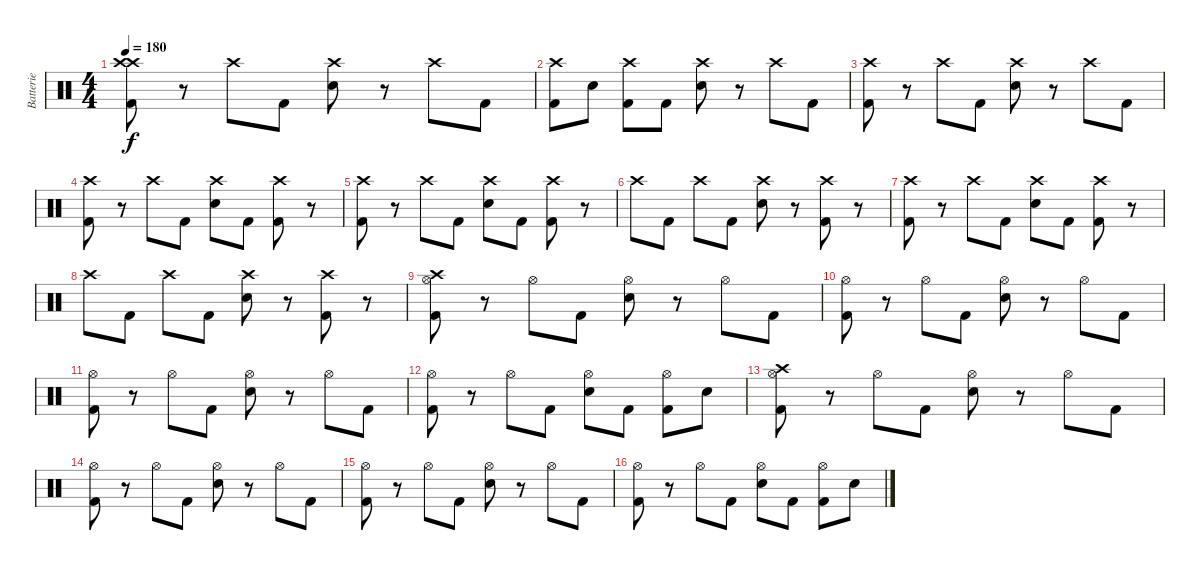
\track ("Batterie" "Batterie") {instrument percussion}
\staff {score}
\articulation defaults
\ts (4 4)
\tempo 180
\clef neutral
\ks c
("Crash high (hit)" "Crash high (hit)" "Kick (hit) 2").8{dy f} r.8 "Crash high (hit)".8 "Kick (hit) 2".8 ("Crash high (hit)" "Snare (hit) 2").8 r.8 "Crash high (hit)".8 "Kick (hit) 2".8 |
("Crash high (hit)" "Kick (hit) 2").8 "Snare (hit) 2".8 ("Crash high (hit)" "Kick (hit) 2").8 "Kick (hit) 2".8 ("Crash high (hit)" "Snare (hit) 2").8 r.8 "Crash high (hit)".8 "Kick (hit) 2".8 |
("Crash high (hit)" "Kick (hit) 2").8 r.8 "Crash high (hit)".8 "Kick (hit) 2".8 ("Crash high (hit)" "Snare (hit) 2").8 r.8 "Crash high (hit)".8 "Kick (hit) 2".8 |
("Crash high (hit)" "Kick (hit) 2").8 r.8 "Crash high (hit)".8 "Kick (hit) 2".8 ("Crash high (hit)" "Snare (hit) 2").8 "Kick (hit) 2".8 ("Crash high (hit)" "Kick (hit) 2").8 r.8 |
("Crash high (hit)" "Kick (hit) 2").8 r.8 "Crash high (hit)".8 "Kick (hit) 2".8 ("Crash high (hit)" "Snare (hit) 2").8 "Kick (hit) 2".8 ("Crash high (hit)" "Kick (hit) 2").8 r.8 |
"Crash high (hit)".8 "Kick (hit) 2".8 "Crash high (hit)".8 "Kick (hit) 2".8 ("Crash high (hit)" "Snare (hit) 2").8 r.8 ("Crash high (hit)" "Kick (hit) 2").8 r.8 |
("Crash high (hit)" "Kick (hit) 2").8 r.8 "Crash high (hit)".8 "Kick (hit) 2".8 ("Crash high (hit)" "Snare (hit) 2").8 "Kick (hit) 2".8 ("Crash high (hit)" "Kick (hit) 2").8 r.8 |
"Crash high (hit)".8 "Kick (hit) 2".8 "Crash high (hit)".8 "Kick (hit) 2".8 ("Crash high (hit)" "Snare (hit) 2").8 r.8 ("Crash high (hit)" "Kick (hit) 2").8 r.8 |
("Crash high (hit)" "Hi-Hat (open)" "Kick (hit) 2").8 r.8 "Hi-Hat (open)".8 "Kick (hit) 2".8 ("Hi-Hat (open)" "Snare (hit) 2").8 r.8 "Hi-Hat (open)".8 "Kick (hit) 2".8 |
("Hi-Hat (open)" "Kick (hit) 2").8 r.8 "Hi-Hat (open)".8 "Kick (hit) 2".8 ("Hi-Hat (open)" "Snare (hit) 2").8 r.8 "Hi-Hat (open)".8 "Kick (hit) 2".8 |
("Hi-Hat (open)" "Kick (hit) 2").8 r.8 "Hi-Hat (open)".8 "Kick (hit) 2".8 ("Hi-Hat (open)" "Snare (hit) 2").8 r.8 "Hi-Hat (open)".8 "Kick (hit) 2".8 |
("Hi-Hat (open)" "Kick (hit) 2").8 r.8 "Hi-Hat (open)".8 "Kick (hit) 2".8 ("Hi-Hat (open)" "Snare (hit) 2").8 "Kick (hit) 2".8 ("Hi-Hat (open)" "Kick (hit) 2").8 "Snare (hit) 2".8 |
("Crash high (hit)" "Hi-Hat (open)" "Kick (hit) 2").8 r.8 "Hi-Hat (open)".8 "Kick (hit) 2".8 ("Hi-Hat (open)" "Snare (hit) 2").8 r.8 "Hi-Hat (open)".8 "Kick (hit) 2".8 |
("Hi-Hat (open)" "Kick (hit) 2").8 r.8 "Hi-Hat (open)".8 "Kick (hit) 2".8 ("Hi-Hat (open)" "Snare (hit) 2").8 r.8 "Hi-Hat (open)".8 "Kick (hit) 2".8 |
("Hi-Hat (open)" "Kick (hit) 2").8 r.8 "Hi-Hat (open)".8 "Kick (hit) 2".8 ("Hi-Hat (open)" "Snare (hit) 2").8 r.8 "Hi-Hat (open)".8 "Kick (hit) 2".8 |
("Hi-Hat (open)" "Kick (hit) 2").8 r.8 "Hi-Hat (open)".8 "Kick (hit) 2".8 ("Hi-Hat (open)" "Snare (hit) 2").8 "Kick (hit) 2".8 ("Hi-Hat (open)" "Kick (hit) 2").8 "Snare (hit) 2".8
